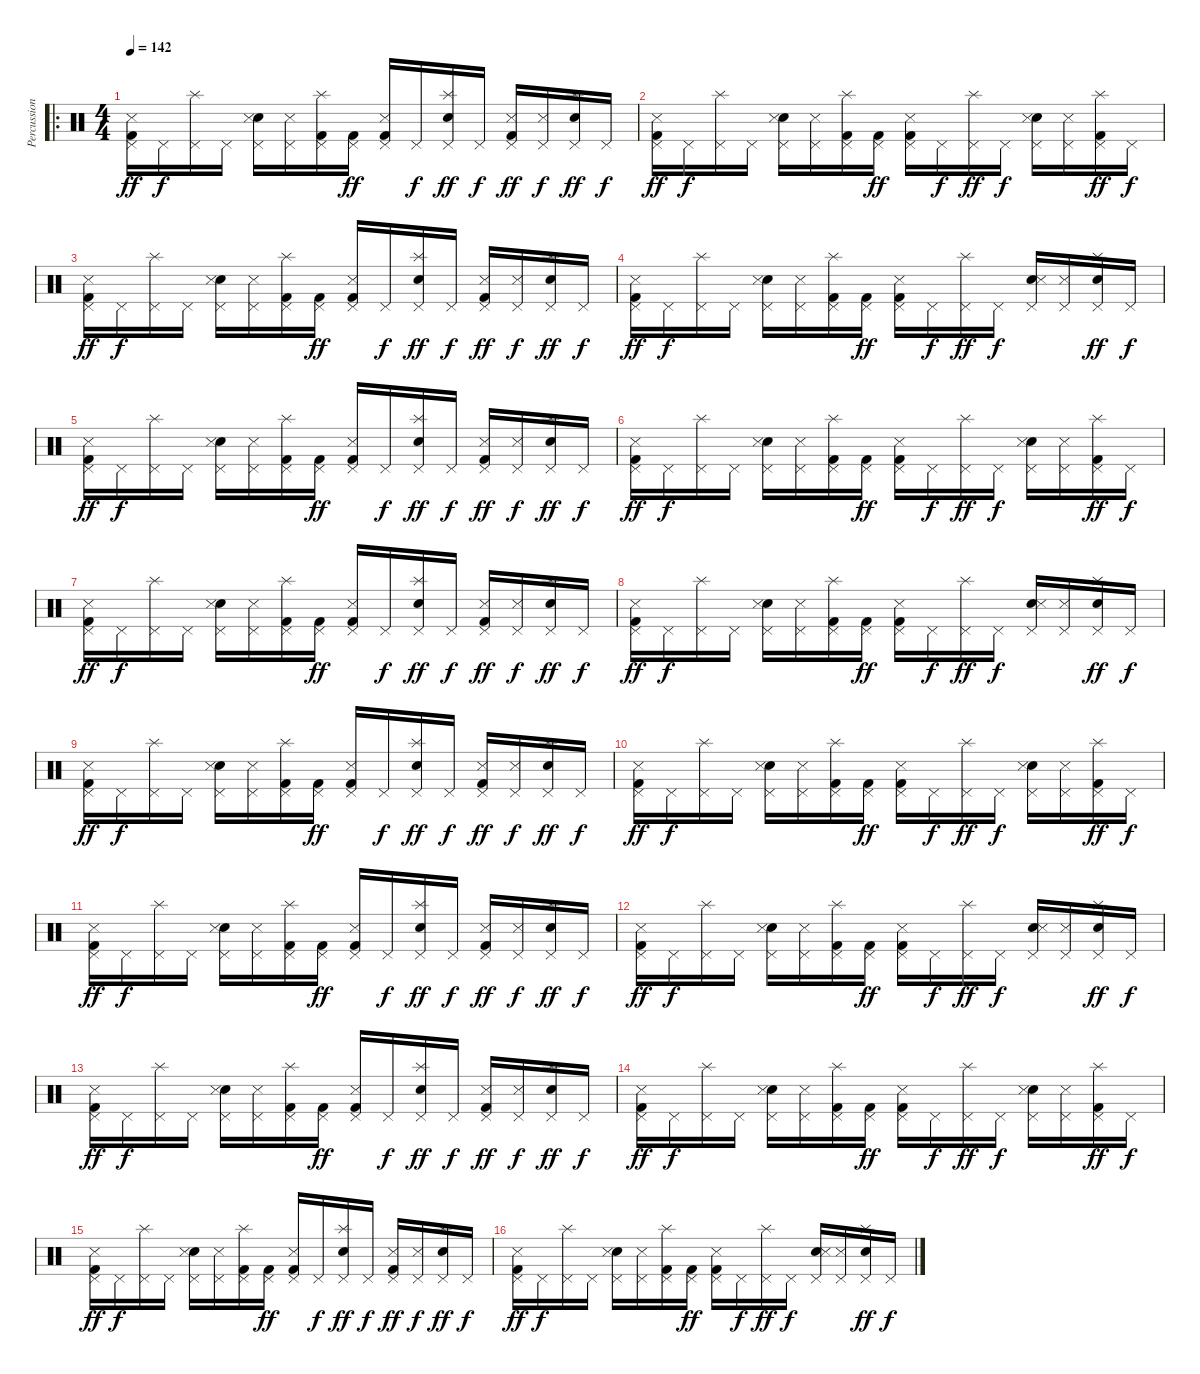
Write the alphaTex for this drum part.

\track ("Percussion" "Percussion") {instrument percussion}
\staff {score}
\articulation defaults
\ro
\ts (4 4)
\tempo 142
\clef neutral
\ks c
("Kick (hit) 2" "Metronome (hit)" "Pedal Hi-Hat (hit)").16{dy ff} "Pedal Hi-Hat (hit)".16{dy f} ("Splash (hit)" "Pedal Hi-Hat (hit)").16 "Pedal Hi-Hat (hit)".16 ("Electric Snare (hit)" "Metronome (hit)" "Pedal Hi-Hat (hit)").16 ("Metronome (hit)" "Pedal Hi-Hat (hit)").16 ("Kick (hit) 2" "Splash (hit)" "Pedal Hi-Hat (hit)").16 ("Kick (hit) 2" "Pedal Hi-Hat (hit)").16{dy ff} ("Kick (hit) 2" "Metronome (hit)" "Pedal Hi-Hat (hit)").16 "Pedal Hi-Hat (hit)".16{dy f} ("Electric Snare (hit)" "Splash (hit)" "Pedal Hi-Hat (hit)").16{dy ff} "Pedal Hi-Hat (hit)".16{dy f} ("Kick (hit) 2" "Metronome (hit)" "Pedal Hi-Hat (hit)").16{dy ff} ("Metronome (hit)" "Pedal Hi-Hat (hit)").16{dy f} ("Electric Snare (hit)" "Splash (hit)" "Pedal Hi-Hat (hit)").16{dy ff} "Pedal Hi-Hat (hit)".16{dy f} |
("Kick (hit) 2" "Metronome (hit)" "Pedal Hi-Hat (hit)").16{dy ff} "Pedal Hi-Hat (hit)".16{dy f} ("Splash (hit)" "Pedal Hi-Hat (hit)").16 "Pedal Hi-Hat (hit)".16 ("Electric Snare (hit)" "Metronome (hit)" "Pedal Hi-Hat (hit)").16 ("Metronome (hit)" "Pedal Hi-Hat (hit)").16 ("Kick (hit) 2" "Splash (hit)" "Pedal Hi-Hat (hit)").16 ("Kick (hit) 2" "Pedal Hi-Hat (hit)").16{dy ff} ("Kick (hit) 2" "Metronome (hit)" "Pedal Hi-Hat (hit)").16 "Pedal Hi-Hat (hit)".16{dy f} ("Splash (hit)" "Pedal Hi-Hat (hit)").16{dy ff} "Pedal Hi-Hat (hit)".16{dy f} ("Electric Snare (hit)" "Metronome (hit)" "Pedal Hi-Hat (hit)").16 ("Metronome (hit)" "Pedal Hi-Hat (hit)").16 ("Kick (hit) 2" "Splash (hit)" "Pedal Hi-Hat (hit)").16{dy ff} "Pedal Hi-Hat (hit)".16{dy f} |
("Kick (hit) 2" "Metronome (hit)" "Pedal Hi-Hat (hit)").16{dy ff} "Pedal Hi-Hat (hit)".16{dy f} ("Splash (hit)" "Pedal Hi-Hat (hit)").16 "Pedal Hi-Hat (hit)".16 ("Electric Snare (hit)" "Metronome (hit)" "Pedal Hi-Hat (hit)").16 ("Metronome (hit)" "Pedal Hi-Hat (hit)").16 ("Kick (hit) 2" "Splash (hit)" "Pedal Hi-Hat (hit)").16 ("Kick (hit) 2" "Pedal Hi-Hat (hit)").16{dy ff} ("Kick (hit) 2" "Metronome (hit)" "Pedal Hi-Hat (hit)").16 "Pedal Hi-Hat (hit)".16{dy f} ("Electric Snare (hit)" "Splash (hit)" "Pedal Hi-Hat (hit)").16{dy ff} "Pedal Hi-Hat (hit)".16{dy f} ("Kick (hit) 2" "Metronome (hit)" "Pedal Hi-Hat (hit)").16{dy ff} ("Metronome (hit)" "Pedal Hi-Hat (hit)").16{dy f} ("Electric Snare (hit)" "Splash (hit)" "Pedal Hi-Hat (hit)").16{dy ff} "Pedal Hi-Hat (hit)".16{dy f} |
("Kick (hit) 2" "Metronome (hit)" "Pedal Hi-Hat (hit)").16{dy ff} "Pedal Hi-Hat (hit)".16{dy f} ("Splash (hit)" "Pedal Hi-Hat (hit)").16 "Pedal Hi-Hat (hit)".16 ("Electric Snare (hit)" "Metronome (hit)" "Pedal Hi-Hat (hit)").16 ("Metronome (hit)" "Pedal Hi-Hat (hit)").16 ("Kick (hit) 2" "Splash (hit)" "Pedal Hi-Hat (hit)").16 ("Kick (hit) 2" "Pedal Hi-Hat (hit)").16{dy ff} ("Kick (hit) 2" "Metronome (hit)" "Pedal Hi-Hat (hit)").16 "Pedal Hi-Hat (hit)".16{dy f} ("Splash (hit)" "Pedal Hi-Hat (hit)").16{dy ff} "Pedal Hi-Hat (hit)".16{dy f} ("Electric Snare (hit)" "Metronome (hit)" "Pedal Hi-Hat (hit)").16 ("Metronome (hit)" "Pedal Hi-Hat (hit)").16 ("Electric Snare (hit)" "Splash (hit)" "Pedal Hi-Hat (hit)").16{dy ff} "Pedal Hi-Hat (hit)".16{dy f} |
("Kick (hit) 2" "Metronome (hit)" "Pedal Hi-Hat (hit)").16{dy ff} "Pedal Hi-Hat (hit)".16{dy f} ("Splash (hit)" "Pedal Hi-Hat (hit)").16 "Pedal Hi-Hat (hit)".16 ("Electric Snare (hit)" "Metronome (hit)" "Pedal Hi-Hat (hit)").16 ("Metronome (hit)" "Pedal Hi-Hat (hit)").16 ("Kick (hit) 2" "Splash (hit)" "Pedal Hi-Hat (hit)").16 ("Kick (hit) 2" "Pedal Hi-Hat (hit)").16{dy ff} ("Kick (hit) 2" "Metronome (hit)" "Pedal Hi-Hat (hit)").16 "Pedal Hi-Hat (hit)".16{dy f} ("Electric Snare (hit)" "Splash (hit)" "Pedal Hi-Hat (hit)").16{dy ff} "Pedal Hi-Hat (hit)".16{dy f} ("Kick (hit) 2" "Metronome (hit)" "Pedal Hi-Hat (hit)").16{dy ff} ("Metronome (hit)" "Pedal Hi-Hat (hit)").16{dy f} ("Electric Snare (hit)" "Splash (hit)" "Pedal Hi-Hat (hit)").16{dy ff} "Pedal Hi-Hat (hit)".16{dy f} |
("Kick (hit) 2" "Metronome (hit)" "Pedal Hi-Hat (hit)").16{dy ff} "Pedal Hi-Hat (hit)".16{dy f} ("Splash (hit)" "Pedal Hi-Hat (hit)").16 "Pedal Hi-Hat (hit)".16 ("Electric Snare (hit)" "Metronome (hit)" "Pedal Hi-Hat (hit)").16 ("Metronome (hit)" "Pedal Hi-Hat (hit)").16 ("Kick (hit) 2" "Splash (hit)" "Pedal Hi-Hat (hit)").16 ("Kick (hit) 2" "Pedal Hi-Hat (hit)").16{dy ff} ("Kick (hit) 2" "Metronome (hit)" "Pedal Hi-Hat (hit)").16 "Pedal Hi-Hat (hit)".16{dy f} ("Splash (hit)" "Pedal Hi-Hat (hit)").16{dy ff} "Pedal Hi-Hat (hit)".16{dy f} ("Electric Snare (hit)" "Metronome (hit)" "Pedal Hi-Hat (hit)").16 ("Metronome (hit)" "Pedal Hi-Hat (hit)").16 ("Kick (hit) 2" "Splash (hit)" "Pedal Hi-Hat (hit)").16{dy ff} "Pedal Hi-Hat (hit)".16{dy f} |
("Kick (hit) 2" "Metronome (hit)" "Pedal Hi-Hat (hit)").16{dy ff} "Pedal Hi-Hat (hit)".16{dy f} ("Splash (hit)" "Pedal Hi-Hat (hit)").16 "Pedal Hi-Hat (hit)".16 ("Electric Snare (hit)" "Metronome (hit)" "Pedal Hi-Hat (hit)").16 ("Metronome (hit)" "Pedal Hi-Hat (hit)").16 ("Kick (hit) 2" "Splash (hit)" "Pedal Hi-Hat (hit)").16 ("Kick (hit) 2" "Pedal Hi-Hat (hit)").16{dy ff} ("Kick (hit) 2" "Metronome (hit)" "Pedal Hi-Hat (hit)").16 "Pedal Hi-Hat (hit)".16{dy f} ("Electric Snare (hit)" "Splash (hit)" "Pedal Hi-Hat (hit)").16{dy ff} "Pedal Hi-Hat (hit)".16{dy f} ("Kick (hit) 2" "Metronome (hit)" "Pedal Hi-Hat (hit)").16{dy ff} ("Metronome (hit)" "Pedal Hi-Hat (hit)").16{dy f} ("Electric Snare (hit)" "Splash (hit)" "Pedal Hi-Hat (hit)").16{dy ff} "Pedal Hi-Hat (hit)".16{dy f} |
("Kick (hit) 2" "Metronome (hit)" "Pedal Hi-Hat (hit)").16{dy ff} "Pedal Hi-Hat (hit)".16{dy f} ("Splash (hit)" "Pedal Hi-Hat (hit)").16 "Pedal Hi-Hat (hit)".16 ("Electric Snare (hit)" "Metronome (hit)" "Pedal Hi-Hat (hit)").16 ("Metronome (hit)" "Pedal Hi-Hat (hit)").16 ("Kick (hit) 2" "Splash (hit)" "Pedal Hi-Hat (hit)").16 ("Kick (hit) 2" "Pedal Hi-Hat (hit)").16{dy ff} ("Kick (hit) 2" "Metronome (hit)" "Pedal Hi-Hat (hit)").16 "Pedal Hi-Hat (hit)".16{dy f} ("Splash (hit)" "Pedal Hi-Hat (hit)").16{dy ff} "Pedal Hi-Hat (hit)".16{dy f} ("Electric Snare (hit)" "Metronome (hit)" "Pedal Hi-Hat (hit)").16 ("Metronome (hit)" "Pedal Hi-Hat (hit)").16 ("Electric Snare (hit)" "Splash (hit)" "Pedal Hi-Hat (hit)").16{dy ff} "Pedal Hi-Hat (hit)".16{dy f} |
("Kick (hit) 2" "Metronome (hit)" "Pedal Hi-Hat (hit)").16{dy ff} "Pedal Hi-Hat (hit)".16{dy f} ("Splash (hit)" "Pedal Hi-Hat (hit)").16 "Pedal Hi-Hat (hit)".16 ("Electric Snare (hit)" "Metronome (hit)" "Pedal Hi-Hat (hit)").16 ("Metronome (hit)" "Pedal Hi-Hat (hit)").16 ("Kick (hit) 2" "Splash (hit)" "Pedal Hi-Hat (hit)").16 ("Kick (hit) 2" "Pedal Hi-Hat (hit)").16{dy ff} ("Kick (hit) 2" "Metronome (hit)" "Pedal Hi-Hat (hit)").16 "Pedal Hi-Hat (hit)".16{dy f} ("Electric Snare (hit)" "Splash (hit)" "Pedal Hi-Hat (hit)").16{dy ff} "Pedal Hi-Hat (hit)".16{dy f} ("Kick (hit) 2" "Metronome (hit)" "Pedal Hi-Hat (hit)").16{dy ff} ("Metronome (hit)" "Pedal Hi-Hat (hit)").16{dy f} ("Electric Snare (hit)" "Splash (hit)" "Pedal Hi-Hat (hit)").16{dy ff} "Pedal Hi-Hat (hit)".16{dy f} |
("Kick (hit) 2" "Metronome (hit)" "Pedal Hi-Hat (hit)").16{dy ff} "Pedal Hi-Hat (hit)".16{dy f} ("Splash (hit)" "Pedal Hi-Hat (hit)").16 "Pedal Hi-Hat (hit)".16 ("Electric Snare (hit)" "Metronome (hit)" "Pedal Hi-Hat (hit)").16 ("Metronome (hit)" "Pedal Hi-Hat (hit)").16 ("Kick (hit) 2" "Splash (hit)" "Pedal Hi-Hat (hit)").16 ("Kick (hit) 2" "Pedal Hi-Hat (hit)").16{dy ff} ("Kick (hit) 2" "Metronome (hit)" "Pedal Hi-Hat (hit)").16 "Pedal Hi-Hat (hit)".16{dy f} ("Splash (hit)" "Pedal Hi-Hat (hit)").16{dy ff} "Pedal Hi-Hat (hit)".16{dy f} ("Electric Snare (hit)" "Metronome (hit)" "Pedal Hi-Hat (hit)").16 ("Metronome (hit)" "Pedal Hi-Hat (hit)").16 ("Kick (hit) 2" "Splash (hit)" "Pedal Hi-Hat (hit)").16{dy ff} "Pedal Hi-Hat (hit)".16{dy f} |
("Kick (hit) 2" "Metronome (hit)" "Pedal Hi-Hat (hit)").16{dy ff} "Pedal Hi-Hat (hit)".16{dy f} ("Splash (hit)" "Pedal Hi-Hat (hit)").16 "Pedal Hi-Hat (hit)".16 ("Electric Snare (hit)" "Metronome (hit)" "Pedal Hi-Hat (hit)").16 ("Metronome (hit)" "Pedal Hi-Hat (hit)").16 ("Kick (hit) 2" "Splash (hit)" "Pedal Hi-Hat (hit)").16 ("Kick (hit) 2" "Pedal Hi-Hat (hit)").16{dy ff} ("Kick (hit) 2" "Metronome (hit)" "Pedal Hi-Hat (hit)").16 "Pedal Hi-Hat (hit)".16{dy f} ("Electric Snare (hit)" "Splash (hit)" "Pedal Hi-Hat (hit)").16{dy ff} "Pedal Hi-Hat (hit)".16{dy f} ("Kick (hit) 2" "Metronome (hit)" "Pedal Hi-Hat (hit)").16{dy ff} ("Metronome (hit)" "Pedal Hi-Hat (hit)").16{dy f} ("Electric Snare (hit)" "Splash (hit)" "Pedal Hi-Hat (hit)").16{dy ff} "Pedal Hi-Hat (hit)".16{dy f} |
("Kick (hit) 2" "Metronome (hit)" "Pedal Hi-Hat (hit)").16{dy ff} "Pedal Hi-Hat (hit)".16{dy f} ("Splash (hit)" "Pedal Hi-Hat (hit)").16 "Pedal Hi-Hat (hit)".16 ("Electric Snare (hit)" "Metronome (hit)" "Pedal Hi-Hat (hit)").16 ("Metronome (hit)" "Pedal Hi-Hat (hit)").16 ("Kick (hit) 2" "Splash (hit)" "Pedal Hi-Hat (hit)").16 ("Kick (hit) 2" "Pedal Hi-Hat (hit)").16{dy ff} ("Kick (hit) 2" "Metronome (hit)" "Pedal Hi-Hat (hit)").16 "Pedal Hi-Hat (hit)".16{dy f} ("Splash (hit)" "Pedal Hi-Hat (hit)").16{dy ff} "Pedal Hi-Hat (hit)".16{dy f} ("Electric Snare (hit)" "Metronome (hit)" "Pedal Hi-Hat (hit)").16 ("Metronome (hit)" "Pedal Hi-Hat (hit)").16 ("Electric Snare (hit)" "Splash (hit)" "Pedal Hi-Hat (hit)").16{dy ff} "Pedal Hi-Hat (hit)".16{dy f} |
("Kick (hit) 2" "Metronome (hit)" "Pedal Hi-Hat (hit)").16{dy ff} "Pedal Hi-Hat (hit)".16{dy f} ("Splash (hit)" "Pedal Hi-Hat (hit)").16 "Pedal Hi-Hat (hit)".16 ("Electric Snare (hit)" "Metronome (hit)" "Pedal Hi-Hat (hit)").16 ("Metronome (hit)" "Pedal Hi-Hat (hit)").16 ("Kick (hit) 2" "Splash (hit)" "Pedal Hi-Hat (hit)").16 ("Kick (hit) 2" "Pedal Hi-Hat (hit)").16{dy ff} ("Kick (hit) 2" "Metronome (hit)" "Pedal Hi-Hat (hit)").16 "Pedal Hi-Hat (hit)".16{dy f} ("Electric Snare (hit)" "Splash (hit)" "Pedal Hi-Hat (hit)").16{dy ff} "Pedal Hi-Hat (hit)".16{dy f} ("Kick (hit) 2" "Metronome (hit)" "Pedal Hi-Hat (hit)").16{dy ff} ("Metronome (hit)" "Pedal Hi-Hat (hit)").16{dy f} ("Electric Snare (hit)" "Splash (hit)" "Pedal Hi-Hat (hit)").16{dy ff} "Pedal Hi-Hat (hit)".16{dy f} |
("Kick (hit) 2" "Metronome (hit)" "Pedal Hi-Hat (hit)").16{dy ff} "Pedal Hi-Hat (hit)".16{dy f} ("Splash (hit)" "Pedal Hi-Hat (hit)").16 "Pedal Hi-Hat (hit)".16 ("Electric Snare (hit)" "Metronome (hit)" "Pedal Hi-Hat (hit)").16 ("Metronome (hit)" "Pedal Hi-Hat (hit)").16 ("Kick (hit) 2" "Splash (hit)" "Pedal Hi-Hat (hit)").16 ("Kick (hit) 2" "Pedal Hi-Hat (hit)").16{dy ff} ("Kick (hit) 2" "Metronome (hit)" "Pedal Hi-Hat (hit)").16 "Pedal Hi-Hat (hit)".16{dy f} ("Splash (hit)" "Pedal Hi-Hat (hit)").16{dy ff} "Pedal Hi-Hat (hit)".16{dy f} ("Electric Snare (hit)" "Metronome (hit)" "Pedal Hi-Hat (hit)").16 ("Metronome (hit)" "Pedal Hi-Hat (hit)").16 ("Kick (hit) 2" "Splash (hit)" "Pedal Hi-Hat (hit)").16{dy ff} "Pedal Hi-Hat (hit)".16{dy f} |
("Kick (hit) 2" "Metronome (hit)" "Pedal Hi-Hat (hit)").16{dy ff} "Pedal Hi-Hat (hit)".16{dy f} ("Splash (hit)" "Pedal Hi-Hat (hit)").16 "Pedal Hi-Hat (hit)".16 ("Electric Snare (hit)" "Metronome (hit)" "Pedal Hi-Hat (hit)").16 ("Metronome (hit)" "Pedal Hi-Hat (hit)").16 ("Kick (hit) 2" "Splash (hit)" "Pedal Hi-Hat (hit)").16 ("Kick (hit) 2" "Pedal Hi-Hat (hit)").16{dy ff} ("Kick (hit) 2" "Metronome (hit)" "Pedal Hi-Hat (hit)").16 "Pedal Hi-Hat (hit)".16{dy f} ("Electric Snare (hit)" "Splash (hit)" "Pedal Hi-Hat (hit)").16{dy ff} "Pedal Hi-Hat (hit)".16{dy f} ("Kick (hit) 2" "Metronome (hit)" "Pedal Hi-Hat (hit)").16{dy ff} ("Metronome (hit)" "Pedal Hi-Hat (hit)").16{dy f} ("Electric Snare (hit)" "Splash (hit)" "Pedal Hi-Hat (hit)").16{dy ff} "Pedal Hi-Hat (hit)".16{dy f} |
("Kick (hit) 2" "Metronome (hit)" "Pedal Hi-Hat (hit)").16{dy ff} "Pedal Hi-Hat (hit)".16{dy f} ("Splash (hit)" "Pedal Hi-Hat (hit)").16 "Pedal Hi-Hat (hit)".16 ("Electric Snare (hit)" "Metronome (hit)" "Pedal Hi-Hat (hit)").16 ("Metronome (hit)" "Pedal Hi-Hat (hit)").16 ("Kick (hit) 2" "Splash (hit)" "Pedal Hi-Hat (hit)").16 ("Kick (hit) 2" "Pedal Hi-Hat (hit)").16{dy ff} ("Kick (hit) 2" "Metronome (hit)" "Pedal Hi-Hat (hit)").16 "Pedal Hi-Hat (hit)".16{dy f} ("Splash (hit)" "Pedal Hi-Hat (hit)").16{dy ff} "Pedal Hi-Hat (hit)".16{dy f} ("Electric Snare (hit)" "Metronome (hit)" "Pedal Hi-Hat (hit)").16 ("Metronome (hit)" "Pedal Hi-Hat (hit)").16 ("Electric Snare (hit)" "Splash (hit)" "Pedal Hi-Hat (hit)").16{dy ff} "Pedal Hi-Hat (hit)".16{dy f}
